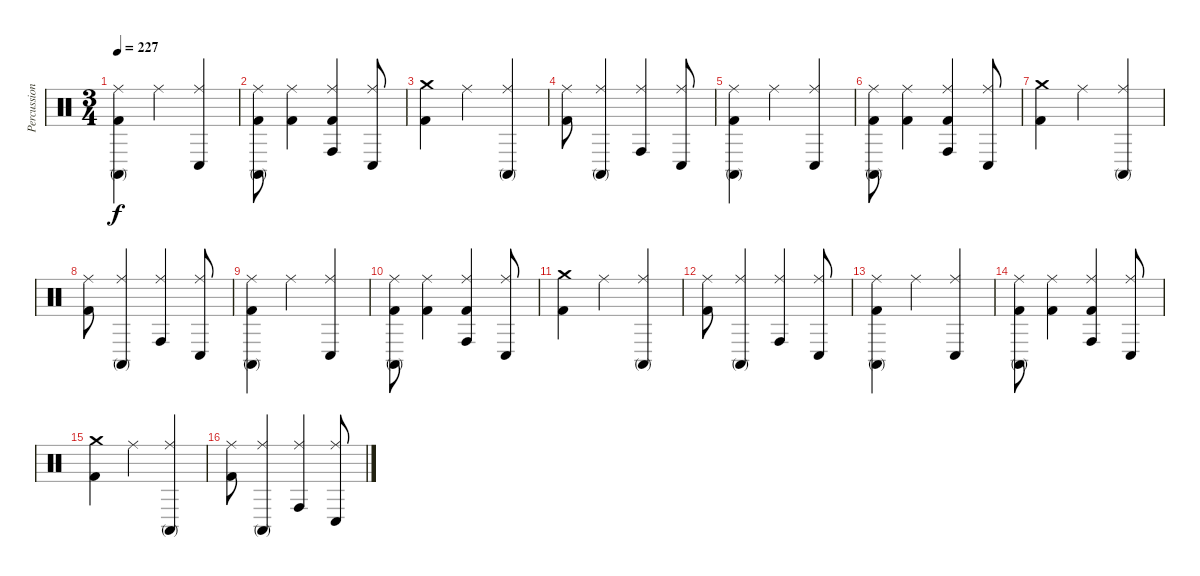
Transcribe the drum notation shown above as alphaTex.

\track ("Percussion" "Percussion") {instrument percussion}
\staff {score}
\articulation defaults
\ts (3 4)
\tempo 227
\clef neutral
\ks c
("Ride (middle)" "Conga high (mute)" "Kick (hit) 2").4{dy f} "Ride (middle)".4 ("Ride (middle)" "Conga low (hit)").4 |
("Ride (middle)" "Conga high (mute)" "Kick (hit) 2").8 ("Ride (middle)" "Kick (hit) 2").4 ("Ride (middle)" "Conga high (hit)" "Kick (hit) 2").4 ("Ride (middle)" "Conga low (hit)").8 |
("Crash medium (hit)" "Kick (hit) 2").4 "Ride (middle)".4 ("Ride (middle)" "Conga high (mute)").4 |
("Ride (middle)" "Kick (hit) 2").8 ("Ride (middle)" "Conga high (mute)").4 ("Ride (middle)" "Conga high (hit)").4 ("Ride (middle)" "Conga low (hit)").8 |
("Ride (middle)" "Conga high (mute)" "Kick (hit) 2").4 "Ride (middle)".4 ("Ride (middle)" "Conga low (hit)").4 |
("Ride (middle)" "Conga high (mute)" "Kick (hit) 2").8 ("Ride (middle)" "Kick (hit) 2").4 ("Ride (middle)" "Conga high (hit)" "Kick (hit) 2").4 ("Ride (middle)" "Conga low (hit)").8 |
("Crash medium (hit)" "Kick (hit) 2").4 "Ride (middle)".4 ("Ride (middle)" "Conga high (mute)").4 |
("Ride (middle)" "Kick (hit) 2").8 ("Ride (middle)" "Conga high (mute)").4 ("Ride (middle)" "Conga high (hit)").4 ("Ride (middle)" "Conga low (hit)").8 |
("Ride (middle)" "Conga high (mute)" "Kick (hit) 2").4 "Ride (middle)".4 ("Ride (middle)" "Conga low (hit)").4 |
("Ride (middle)" "Conga high (mute)" "Kick (hit) 2").8 ("Ride (middle)" "Kick (hit) 2").4 ("Ride (middle)" "Conga high (hit)" "Kick (hit) 2").4 ("Ride (middle)" "Conga low (hit)").8 |
("Crash medium (hit)" "Kick (hit) 2").4 "Ride (middle)".4 ("Ride (middle)" "Conga high (mute)").4 |
("Ride (middle)" "Kick (hit) 2").8 ("Ride (middle)" "Conga high (mute)").4 ("Ride (middle)" "Conga high (hit)").4 ("Ride (middle)" "Conga low (hit)").8 |
("Ride (middle)" "Conga high (mute)" "Kick (hit) 2").4 "Ride (middle)".4 ("Ride (middle)" "Conga low (hit)").4 |
("Ride (middle)" "Conga high (mute)" "Kick (hit) 2").8 ("Ride (middle)" "Kick (hit) 2").4 ("Ride (middle)" "Conga high (hit)" "Kick (hit) 2").4 ("Ride (middle)" "Conga low (hit)").8 |
("Crash medium (hit)" "Kick (hit) 2").4 "Ride (middle)".4 ("Ride (middle)" "Conga high (mute)").4 |
("Ride (middle)" "Kick (hit) 2").8 ("Ride (middle)" "Conga high (mute)").4 ("Ride (middle)" "Conga high (hit)").4 ("Ride (middle)" "Conga low (hit)").8
